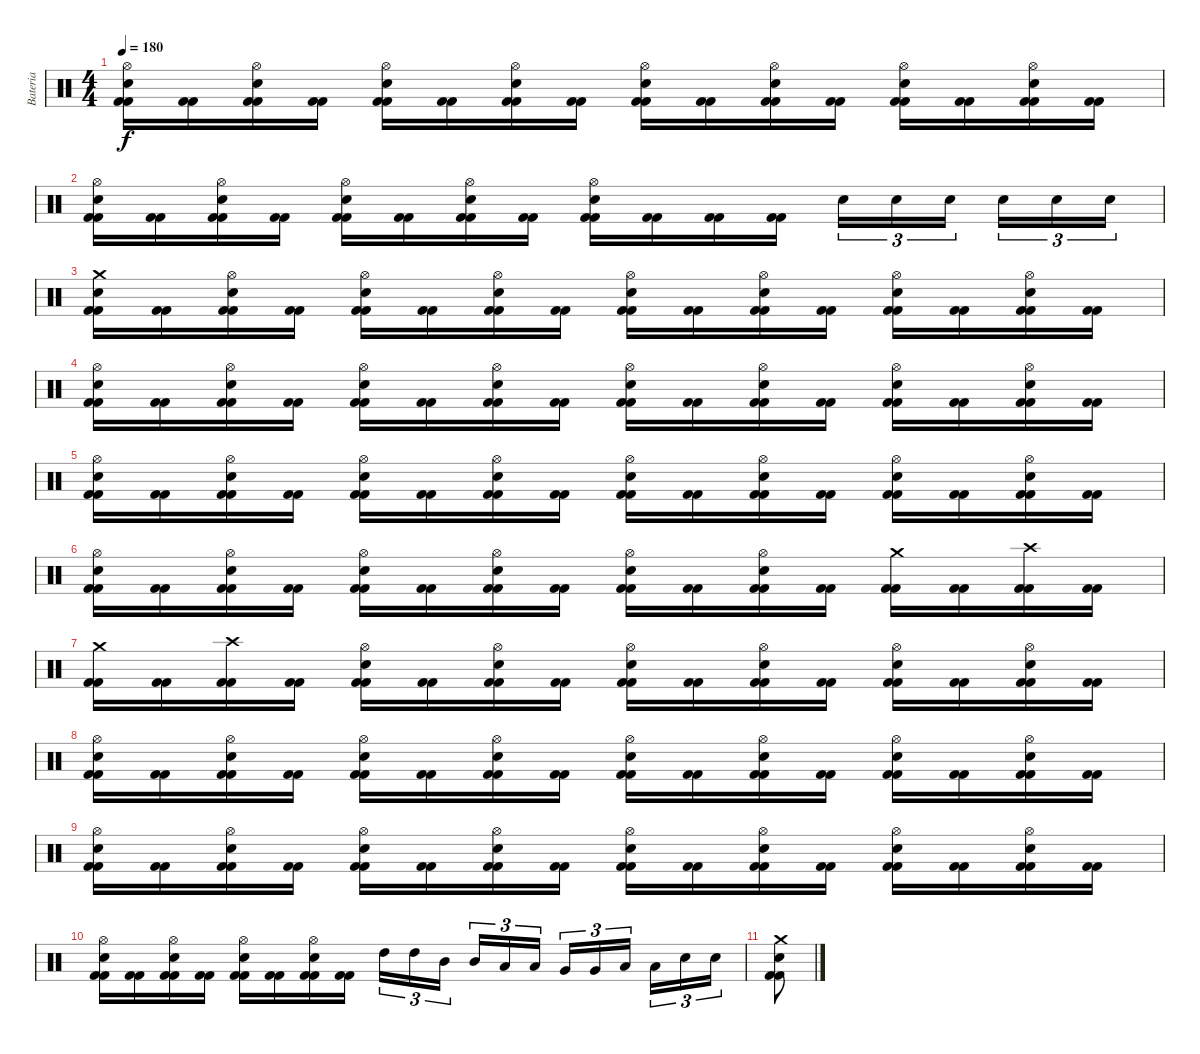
\track ("Bateria" "Bateria") {instrument percussion}
\staff {score}
\articulation defaults
\ts (4 4)
\tempo 180
\clef neutral
\ks c
("Kick (hit) 2" "Kick (hit) 2" "Snare (hit) 2" "Hi-Hat (open)").16{dy f} ("Kick (hit) 2" "Kick (hit) 2").16 ("Kick (hit) 2" "Kick (hit) 2" "Hi-Hat (open)" "Snare (hit) 2").16 ("Kick (hit) 2" "Kick (hit) 2").16 ("Kick (hit) 2" "Kick (hit) 2" "Snare (hit) 2" "Hi-Hat (open)").16 ("Kick (hit) 2" "Kick (hit) 2").16 ("Kick (hit) 2" "Kick (hit) 2" "Hi-Hat (open)" "Snare (hit) 2").16 ("Kick (hit) 2" "Kick (hit) 2").16 ("Kick (hit) 2" "Kick (hit) 2" "Snare (hit) 2" "Hi-Hat (open)").16 ("Kick (hit) 2" "Kick (hit) 2").16 ("Kick (hit) 2" "Kick (hit) 2" "Hi-Hat (open)" "Snare (hit) 2").16 ("Kick (hit) 2" "Kick (hit) 2").16 ("Kick (hit) 2" "Kick (hit) 2" "Snare (hit) 2" "Hi-Hat (open)").16 ("Kick (hit) 2" "Kick (hit) 2").16 ("Kick (hit) 2" "Kick (hit) 2" "Hi-Hat (open)" "Snare (hit) 2").16 ("Kick (hit) 2" "Kick (hit) 2").16 |
("Kick (hit) 2" "Kick (hit) 2" "Snare (hit) 2" "Hi-Hat (open)").16 ("Kick (hit) 2" "Kick (hit) 2").16 ("Kick (hit) 2" "Kick (hit) 2" "Hi-Hat (open)" "Snare (hit) 2").16 ("Kick (hit) 2" "Kick (hit) 2").16 ("Kick (hit) 2" "Kick (hit) 2" "Snare (hit) 2" "Hi-Hat (open)").16 ("Kick (hit) 2" "Kick (hit) 2").16 ("Kick (hit) 2" "Kick (hit) 2" "Hi-Hat (open)" "Snare (hit) 2").16 ("Kick (hit) 2" "Kick (hit) 2").16 ("Kick (hit) 2" "Kick (hit) 2" "Hi-Hat (open)" "Snare (hit) 2").16 ("Kick (hit) 2" "Kick (hit) 2").16 ("Kick (hit) 2" "Kick (hit) 2").16 ("Kick (hit) 2" "Kick (hit) 2").16 "Electric Snare (hit)".16{tu (3 2)} "Electric Snare (hit)".16{tu (3 2)} "Electric Snare (hit)".16{tu (3 2)} "Electric Snare (hit)".16{tu (3 2)} "Electric Snare (hit)".16{tu (3 2)} "Electric Snare (hit)".16{tu (3 2)} |
("Kick (hit) 2" "Kick (hit) 2" "Snare (hit) 2" "Crash medium (hit)").16 ("Kick (hit) 2" "Kick (hit) 2").16 ("Kick (hit) 2" "Kick (hit) 2" "Hi-Hat (open)" "Snare (hit) 2").16 ("Kick (hit) 2" "Kick (hit) 2").16 ("Kick (hit) 2" "Kick (hit) 2" "Snare (hit) 2" "Hi-Hat (open)").16 ("Kick (hit) 2" "Kick (hit) 2").16 ("Kick (hit) 2" "Kick (hit) 2" "Hi-Hat (open)" "Snare (hit) 2").16 ("Kick (hit) 2" "Kick (hit) 2").16 ("Kick (hit) 2" "Kick (hit) 2" "Snare (hit) 2" "Hi-Hat (open)").16 ("Kick (hit) 2" "Kick (hit) 2").16 ("Kick (hit) 2" "Kick (hit) 2" "Hi-Hat (open)" "Snare (hit) 2").16 ("Kick (hit) 2" "Kick (hit) 2").16 ("Kick (hit) 2" "Kick (hit) 2" "Snare (hit) 2" "Hi-Hat (open)").16 ("Kick (hit) 2" "Kick (hit) 2").16 ("Kick (hit) 2" "Kick (hit) 2" "Hi-Hat (open)" "Snare (hit) 2").16 ("Kick (hit) 2" "Kick (hit) 2").16 |
("Kick (hit) 2" "Kick (hit) 2" "Snare (hit) 2" "Hi-Hat (open)").16 ("Kick (hit) 2" "Kick (hit) 2").16 ("Kick (hit) 2" "Kick (hit) 2" "Hi-Hat (open)" "Snare (hit) 2").16 ("Kick (hit) 2" "Kick (hit) 2").16 ("Kick (hit) 2" "Kick (hit) 2" "Snare (hit) 2" "Hi-Hat (open)").16 ("Kick (hit) 2" "Kick (hit) 2").16 ("Kick (hit) 2" "Kick (hit) 2" "Hi-Hat (open)" "Snare (hit) 2").16 ("Kick (hit) 2" "Kick (hit) 2").16 ("Kick (hit) 2" "Kick (hit) 2" "Snare (hit) 2" "Hi-Hat (open)").16 ("Kick (hit) 2" "Kick (hit) 2").16 ("Kick (hit) 2" "Kick (hit) 2" "Hi-Hat (open)" "Snare (hit) 2").16 ("Kick (hit) 2" "Kick (hit) 2").16 ("Kick (hit) 2" "Kick (hit) 2" "Snare (hit) 2" "Hi-Hat (open)").16 ("Kick (hit) 2" "Kick (hit) 2").16 ("Kick (hit) 2" "Kick (hit) 2" "Hi-Hat (open)" "Snare (hit) 2").16 ("Kick (hit) 2" "Kick (hit) 2").16 |
("Kick (hit) 2" "Kick (hit) 2" "Snare (hit) 2" "Hi-Hat (open)").16 ("Kick (hit) 2" "Kick (hit) 2").16 ("Kick (hit) 2" "Kick (hit) 2" "Hi-Hat (open)" "Snare (hit) 2").16 ("Kick (hit) 2" "Kick (hit) 2").16 ("Kick (hit) 2" "Kick (hit) 2" "Snare (hit) 2" "Hi-Hat (open)").16 ("Kick (hit) 2" "Kick (hit) 2").16 ("Kick (hit) 2" "Kick (hit) 2" "Hi-Hat (open)" "Snare (hit) 2").16 ("Kick (hit) 2" "Kick (hit) 2").16 ("Kick (hit) 2" "Kick (hit) 2" "Snare (hit) 2" "Hi-Hat (open)").16 ("Kick (hit) 2" "Kick (hit) 2").16 ("Kick (hit) 2" "Kick (hit) 2" "Hi-Hat (open)" "Snare (hit) 2").16 ("Kick (hit) 2" "Kick (hit) 2").16 ("Kick (hit) 2" "Kick (hit) 2" "Snare (hit) 2" "Hi-Hat (open)").16 ("Kick (hit) 2" "Kick (hit) 2").16 ("Kick (hit) 2" "Kick (hit) 2" "Hi-Hat (open)" "Snare (hit) 2").16 ("Kick (hit) 2" "Kick (hit) 2").16 |
("Kick (hit) 2" "Kick (hit) 2" "Snare (hit) 2" "Hi-Hat (open)").16 ("Kick (hit) 2" "Kick (hit) 2").16 ("Kick (hit) 2" "Kick (hit) 2" "Hi-Hat (open)" "Snare (hit) 2").16 ("Kick (hit) 2" "Kick (hit) 2").16 ("Kick (hit) 2" "Kick (hit) 2" "Snare (hit) 2" "Hi-Hat (open)").16 ("Kick (hit) 2" "Kick (hit) 2").16 ("Kick (hit) 2" "Kick (hit) 2" "Hi-Hat (open)" "Snare (hit) 2").16 ("Kick (hit) 2" "Kick (hit) 2").16 ("Kick (hit) 2" "Kick (hit) 2" "Snare (hit) 2" "Hi-Hat (open)").16 ("Kick (hit) 2" "Kick (hit) 2").16 ("Kick (hit) 2" "Kick (hit) 2" "Hi-Hat (open)" "Snare (hit) 2").16 ("Kick (hit) 2" "Kick (hit) 2").16 ("Kick (hit) 2" "Kick (hit) 2" "Crash medium (hit)").16 ("Kick (hit) 2" "Kick (hit) 2").16 ("Kick (hit) 2" "Kick (hit) 2" "Crash high (hit)").16 ("Kick (hit) 2" "Kick (hit) 2").16 |
("Kick (hit) 2" "Kick (hit) 2" "Crash medium (hit)").16 ("Kick (hit) 2" "Kick (hit) 2").16 ("Kick (hit) 2" "Kick (hit) 2" "Crash high (hit)").16 ("Kick (hit) 2" "Kick (hit) 2").16 ("Kick (hit) 2" "Kick (hit) 2" "Snare (hit) 2" "Hi-Hat (open)").16 ("Kick (hit) 2" "Kick (hit) 2").16 ("Kick (hit) 2" "Kick (hit) 2" "Hi-Hat (open)" "Snare (hit) 2").16 ("Kick (hit) 2" "Kick (hit) 2").16 ("Kick (hit) 2" "Kick (hit) 2" "Snare (hit) 2" "Hi-Hat (open)").16 ("Kick (hit) 2" "Kick (hit) 2").16 ("Kick (hit) 2" "Kick (hit) 2" "Hi-Hat (open)" "Snare (hit) 2").16 ("Kick (hit) 2" "Kick (hit) 2").16 ("Kick (hit) 2" "Kick (hit) 2" "Snare (hit) 2" "Hi-Hat (open)").16 ("Kick (hit) 2" "Kick (hit) 2").16 ("Kick (hit) 2" "Kick (hit) 2" "Hi-Hat (open)" "Snare (hit) 2").16 ("Kick (hit) 2" "Kick (hit) 2").16 |
("Kick (hit) 2" "Kick (hit) 2" "Snare (hit) 2" "Hi-Hat (open)").16 ("Kick (hit) 2" "Kick (hit) 2").16 ("Kick (hit) 2" "Kick (hit) 2" "Hi-Hat (open)" "Snare (hit) 2").16 ("Kick (hit) 2" "Kick (hit) 2").16 ("Kick (hit) 2" "Kick (hit) 2" "Snare (hit) 2" "Hi-Hat (open)").16 ("Kick (hit) 2" "Kick (hit) 2").16 ("Kick (hit) 2" "Kick (hit) 2" "Hi-Hat (open)" "Snare (hit) 2").16 ("Kick (hit) 2" "Kick (hit) 2").16 ("Kick (hit) 2" "Kick (hit) 2" "Snare (hit) 2" "Hi-Hat (open)").16 ("Kick (hit) 2" "Kick (hit) 2").16 ("Kick (hit) 2" "Kick (hit) 2" "Hi-Hat (open)" "Snare (hit) 2").16 ("Kick (hit) 2" "Kick (hit) 2").16 ("Kick (hit) 2" "Kick (hit) 2" "Snare (hit) 2" "Hi-Hat (open)").16 ("Kick (hit) 2" "Kick (hit) 2").16 ("Kick (hit) 2" "Kick (hit) 2" "Hi-Hat (open)" "Snare (hit) 2").16 ("Kick (hit) 2" "Kick (hit) 2").16 |
("Kick (hit) 2" "Kick (hit) 2" "Snare (hit) 2" "Hi-Hat (open)").16 ("Kick (hit) 2" "Kick (hit) 2").16 ("Kick (hit) 2" "Kick (hit) 2" "Hi-Hat (open)" "Snare (hit) 2").16 ("Kick (hit) 2" "Kick (hit) 2").16 ("Kick (hit) 2" "Kick (hit) 2" "Snare (hit) 2" "Hi-Hat (open)").16 ("Kick (hit) 2" "Kick (hit) 2").16 ("Kick (hit) 2" "Kick (hit) 2" "Hi-Hat (open)" "Snare (hit) 2").16 ("Kick (hit) 2" "Kick (hit) 2").16 ("Kick (hit) 2" "Kick (hit) 2" "Snare (hit) 2" "Hi-Hat (open)").16 ("Kick (hit) 2" "Kick (hit) 2").16 ("Kick (hit) 2" "Kick (hit) 2" "Hi-Hat (open)" "Snare (hit) 2").16 ("Kick (hit) 2" "Kick (hit) 2").16 ("Kick (hit) 2" "Kick (hit) 2" "Snare (hit) 2" "Hi-Hat (open)").16 ("Kick (hit) 2" "Kick (hit) 2").16 ("Kick (hit) 2" "Kick (hit) 2" "Hi-Hat (open)" "Snare (hit) 2").16 ("Kick (hit) 2" "Kick (hit) 2").16 |
("Kick (hit) 2" "Kick (hit) 2" "Snare (hit) 2" "Hi-Hat (open)").16 ("Kick (hit) 2" "Kick (hit) 2").16 ("Kick (hit) 2" "Kick (hit) 2" "Hi-Hat (open)" "Snare (hit) 2").16 ("Kick (hit) 2" "Kick (hit) 2").16 ("Kick (hit) 2" "Kick (hit) 2" "Snare (hit) 2" "Hi-Hat (open)").16 ("Kick (hit) 2" "Kick (hit) 2").16 ("Kick (hit) 2" "Kick (hit) 2" "Hi-Hat (open)" "Snare (hit) 2").16 ("Kick (hit) 2" "Kick (hit) 2").16 "High Tom (hit)".16{tu (3 2)} "High Tom (hit)".16{tu (3 2)} "Mid Tom (hit)".16{tu (3 2)} "Mid Tom (hit)".16{tu (3 2)} "Low Tom (hit)".16{tu (3 2)} "Low Tom (hit)".16{tu (3 2)} "Very Low Tom (hit)".16{tu (3 2)} "Very Low Tom (hit)".16{tu (3 2)} "Low Floor Tom (hit)".16{tu (3 2)} "Low Floor Tom (hit)".16{tu (3 2)} "Electric Snare (hit)".16{tu (3 2)} "Electric Snare (hit)".16{tu (3 2)} |
("Kick (hit) 2" "Kick (hit) 2" "Snare (hit) 2" "Crash medium (hit)").8
